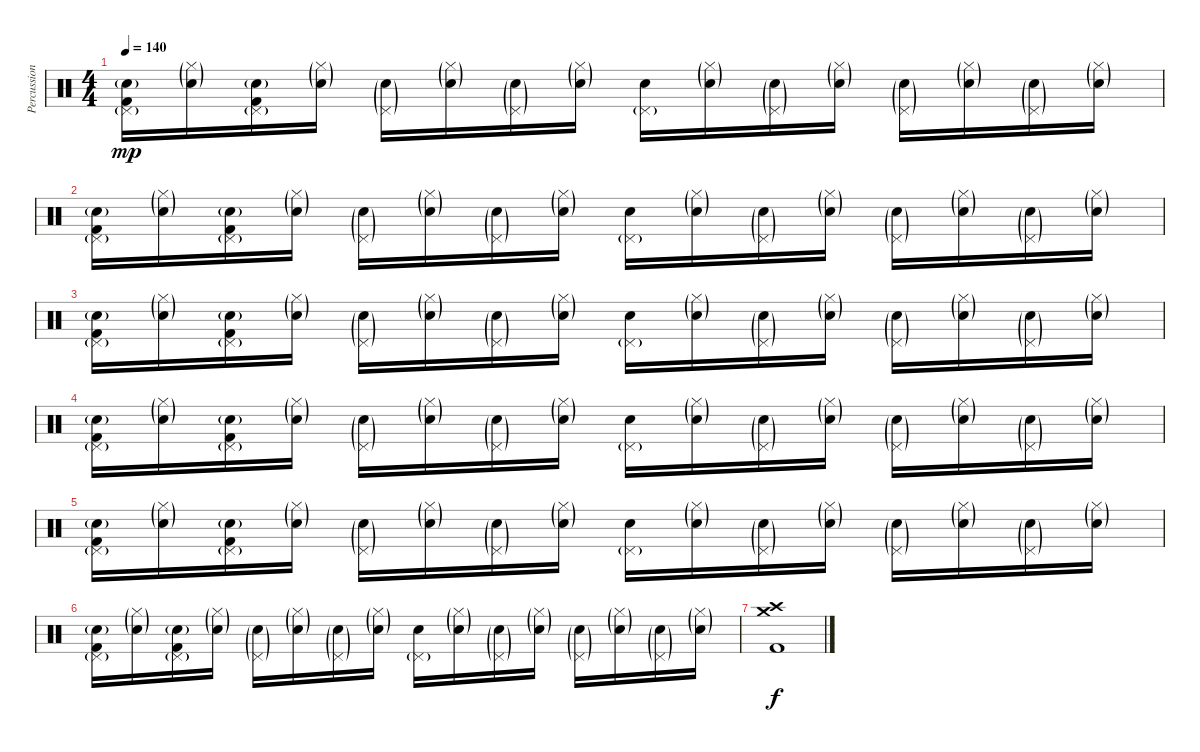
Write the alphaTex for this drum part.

\track ("Percussion" "Percussion") {instrument percussion}
\staff {score}
\articulation defaults
\ts (4 4)
\tempo 140
\clef neutral
\ks c
("Pedal Hi-Hat (hit)"{g} "Electric Snare (hit)"{g} "Kick (hit) 2").16{dy mp} ("Hi-Hat (closed)"{g} "Electric Snare (hit)"{g}).16 ("Pedal Hi-Hat (hit)"{g} "Electric Snare (hit)"{g} "Kick (hit) 2").16 ("Hi-Hat (closed)"{g} "Electric Snare (hit)"{g}).16 ("Pedal Hi-Hat (hit)"{g} "Electric Snare (hit)"{g}).16 ("Hi-Hat (closed)"{g} "Electric Snare (hit)"{g}).16 ("Pedal Hi-Hat (hit)"{g} "Electric Snare (hit)"{g}).16 ("Hi-Hat (closed)"{g} "Electric Snare (hit)"{g}).16 ("Pedal Hi-Hat (hit)"{g} "Electric Snare (hit)").16 ("Hi-Hat (closed)"{g} "Electric Snare (hit)"{g}).16 ("Pedal Hi-Hat (hit)"{g} "Electric Snare (hit)"{g}).16 ("Hi-Hat (closed)"{g} "Electric Snare (hit)"{g}).16 ("Pedal Hi-Hat (hit)"{g} "Electric Snare (hit)"{g}).16 ("Hi-Hat (closed)"{g} "Electric Snare (hit)"{g}).16 ("Pedal Hi-Hat (hit)"{g} "Electric Snare (hit)"{g}).16 ("Hi-Hat (closed)"{g} "Electric Snare (hit)"{g}).16 |
("Pedal Hi-Hat (hit)"{g} "Electric Snare (hit)"{g} "Kick (hit) 2").16 ("Hi-Hat (closed)"{g} "Electric Snare (hit)"{g}).16 ("Pedal Hi-Hat (hit)"{g} "Electric Snare (hit)"{g} "Kick (hit) 2").16 ("Hi-Hat (closed)"{g} "Electric Snare (hit)"{g}).16 ("Pedal Hi-Hat (hit)"{g} "Electric Snare (hit)"{g}).16 ("Hi-Hat (closed)"{g} "Electric Snare (hit)"{g}).16 ("Pedal Hi-Hat (hit)"{g} "Electric Snare (hit)"{g}).16 ("Hi-Hat (closed)"{g} "Electric Snare (hit)"{g}).16 ("Pedal Hi-Hat (hit)"{g} "Electric Snare (hit)").16 ("Hi-Hat (closed)"{g} "Electric Snare (hit)"{g}).16 ("Pedal Hi-Hat (hit)"{g} "Electric Snare (hit)"{g}).16 ("Hi-Hat (closed)"{g} "Electric Snare (hit)"{g}).16 ("Pedal Hi-Hat (hit)"{g} "Electric Snare (hit)"{g}).16 ("Hi-Hat (closed)"{g} "Electric Snare (hit)"{g}).16 ("Pedal Hi-Hat (hit)"{g} "Electric Snare (hit)"{g}).16 ("Hi-Hat (closed)"{g} "Electric Snare (hit)"{g}).16 |
("Pedal Hi-Hat (hit)"{g} "Electric Snare (hit)"{g} "Kick (hit) 2").16 ("Hi-Hat (closed)"{g} "Electric Snare (hit)"{g}).16 ("Pedal Hi-Hat (hit)"{g} "Electric Snare (hit)"{g} "Kick (hit) 2").16 ("Hi-Hat (closed)"{g} "Electric Snare (hit)"{g}).16 ("Pedal Hi-Hat (hit)"{g} "Electric Snare (hit)"{g}).16 ("Hi-Hat (closed)"{g} "Electric Snare (hit)"{g}).16 ("Pedal Hi-Hat (hit)"{g} "Electric Snare (hit)"{g}).16 ("Hi-Hat (closed)"{g} "Electric Snare (hit)"{g}).16 ("Pedal Hi-Hat (hit)"{g} "Electric Snare (hit)").16 ("Hi-Hat (closed)"{g} "Electric Snare (hit)"{g}).16 ("Pedal Hi-Hat (hit)"{g} "Electric Snare (hit)"{g}).16 ("Hi-Hat (closed)"{g} "Electric Snare (hit)"{g}).16 ("Pedal Hi-Hat (hit)"{g} "Electric Snare (hit)"{g}).16 ("Hi-Hat (closed)"{g} "Electric Snare (hit)"{g}).16 ("Pedal Hi-Hat (hit)"{g} "Electric Snare (hit)"{g}).16 ("Hi-Hat (closed)"{g} "Electric Snare (hit)"{g}).16 |
("Pedal Hi-Hat (hit)"{g} "Electric Snare (hit)"{g} "Kick (hit) 2").16 ("Hi-Hat (closed)"{g} "Electric Snare (hit)"{g}).16 ("Pedal Hi-Hat (hit)"{g} "Electric Snare (hit)"{g} "Kick (hit) 2").16 ("Hi-Hat (closed)"{g} "Electric Snare (hit)"{g}).16 ("Pedal Hi-Hat (hit)"{g} "Electric Snare (hit)"{g}).16 ("Hi-Hat (closed)"{g} "Electric Snare (hit)"{g}).16 ("Pedal Hi-Hat (hit)"{g} "Electric Snare (hit)"{g}).16 ("Hi-Hat (closed)"{g} "Electric Snare (hit)"{g}).16 ("Pedal Hi-Hat (hit)"{g} "Electric Snare (hit)").16 ("Hi-Hat (closed)"{g} "Electric Snare (hit)"{g}).16 ("Pedal Hi-Hat (hit)"{g} "Electric Snare (hit)"{g}).16 ("Hi-Hat (closed)"{g} "Electric Snare (hit)"{g}).16 ("Pedal Hi-Hat (hit)"{g} "Electric Snare (hit)"{g}).16 ("Hi-Hat (closed)"{g} "Electric Snare (hit)"{g}).16 ("Pedal Hi-Hat (hit)"{g} "Electric Snare (hit)"{g}).16 ("Hi-Hat (closed)"{g} "Electric Snare (hit)"{g}).16 |
("Pedal Hi-Hat (hit)"{g} "Electric Snare (hit)"{g} "Kick (hit) 2").16 ("Hi-Hat (closed)"{g} "Electric Snare (hit)"{g}).16 ("Pedal Hi-Hat (hit)"{g} "Electric Snare (hit)"{g} "Kick (hit) 2").16 ("Hi-Hat (closed)"{g} "Electric Snare (hit)"{g}).16 ("Pedal Hi-Hat (hit)"{g} "Electric Snare (hit)"{g}).16 ("Hi-Hat (closed)"{g} "Electric Snare (hit)"{g}).16 ("Pedal Hi-Hat (hit)"{g} "Electric Snare (hit)"{g}).16 ("Hi-Hat (closed)"{g} "Electric Snare (hit)"{g}).16 ("Pedal Hi-Hat (hit)"{g} "Electric Snare (hit)").16 ("Hi-Hat (closed)"{g} "Electric Snare (hit)"{g}).16 ("Pedal Hi-Hat (hit)"{g} "Electric Snare (hit)"{g}).16 ("Hi-Hat (closed)"{g} "Electric Snare (hit)"{g}).16 ("Pedal Hi-Hat (hit)"{g} "Electric Snare (hit)"{g}).16 ("Hi-Hat (closed)"{g} "Electric Snare (hit)"{g}).16 ("Pedal Hi-Hat (hit)"{g} "Electric Snare (hit)"{g}).16 ("Hi-Hat (closed)"{g} "Electric Snare (hit)"{g}).16 |
("Pedal Hi-Hat (hit)"{g} "Electric Snare (hit)"{g} "Kick (hit) 2").16 ("Hi-Hat (closed)"{g} "Electric Snare (hit)"{g}).16 ("Pedal Hi-Hat (hit)"{g} "Electric Snare (hit)"{g} "Kick (hit) 2").16 ("Hi-Hat (closed)"{g} "Electric Snare (hit)"{g}).16 ("Pedal Hi-Hat (hit)"{g} "Electric Snare (hit)"{g}).16 ("Hi-Hat (closed)"{g} "Electric Snare (hit)"{g}).16 ("Pedal Hi-Hat (hit)"{g} "Electric Snare (hit)"{g}).16 ("Hi-Hat (closed)"{g} "Electric Snare (hit)"{g}).16 ("Pedal Hi-Hat (hit)"{g} "Electric Snare (hit)").16 ("Hi-Hat (closed)"{g} "Electric Snare (hit)"{g}).16 ("Pedal Hi-Hat (hit)"{g} "Electric Snare (hit)"{g}).16 ("Hi-Hat (closed)"{g} "Electric Snare (hit)"{g}).16 ("Pedal Hi-Hat (hit)"{g} "Electric Snare (hit)"{g}).16 ("Hi-Hat (closed)"{g} "Electric Snare (hit)"{g}).16 ("Pedal Hi-Hat (hit)"{g} "Electric Snare (hit)"{g}).16 ("Hi-Hat (closed)"{g} "Electric Snare (hit)"{g}).16 |
("Crash medium (hit)" "Crash high (hit)" "Kick (hit) 2").1{dy f}
